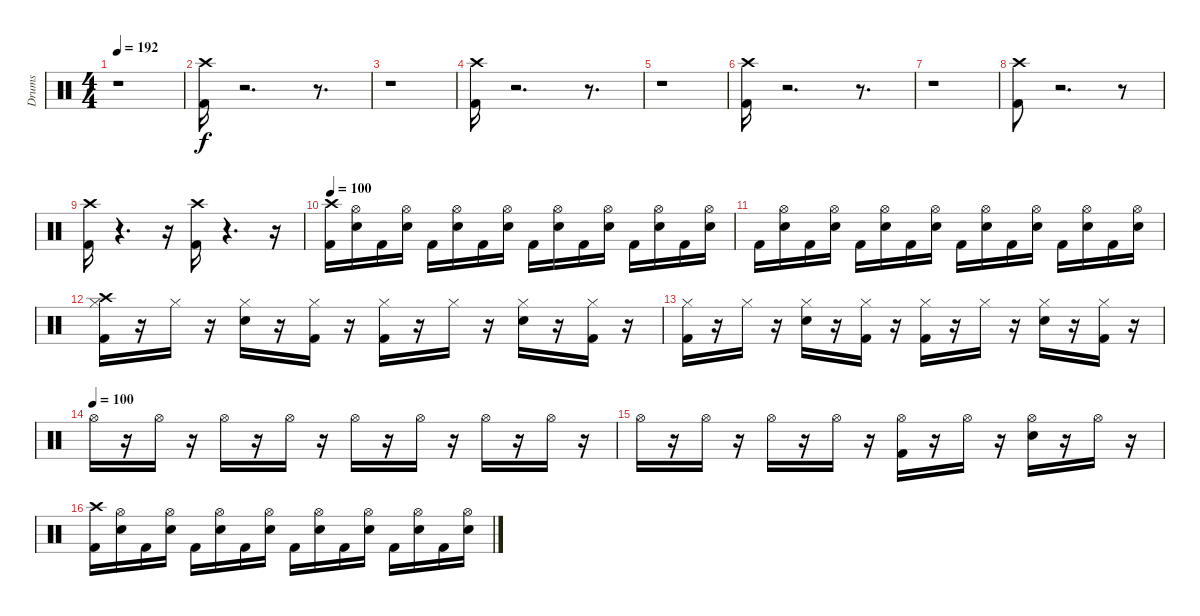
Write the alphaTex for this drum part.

\track ("Drums               " "Drums     ") {instrument percussion}
\staff {score}
\articulation defaults
\ts (4 4)
\tempo 192
\clef neutral
\ks c
r.1{dy f} |
("Kick (hit) 2" "Crash high (hit)").16 r.2{d} r.8{d} |
r.1 |
("Kick (hit) 2" "Crash high (hit)").16 r.2{d} r.8{d} |
r.1 |
("Kick (hit) 2" "Crash high (hit)").16 r.2{d} r.8{d} |
r.1 |
("Kick (hit) 2" "Crash high (hit)").8 r.2{d} r.8 |
("Kick (hit) 2" "Crash high (hit)").16 r.4{d} r.16 ("Kick (hit) 2" "Crash high (hit)").16 r.4{d} r.16 |
\tempo 100
("Kick (hit) 2" "Crash high (hit)").16 ("Snare (hit) 2" "Hi-Hat (open)").16 "Kick (hit) 2".16 ("Snare (hit) 2" "Hi-Hat (open)").16 "Kick (hit) 2".16 ("Snare (hit) 2" "Hi-Hat (open)").16 "Kick (hit) 2".16 ("Snare (hit) 2" "Hi-Hat (open)").16 "Kick (hit) 2".16 ("Snare (hit) 2" "Hi-Hat (open)").16 "Kick (hit) 2".16 ("Snare (hit) 2" "Hi-Hat (open)").16 "Kick (hit) 2".16 ("Snare (hit) 2" "Hi-Hat (open)").16 "Kick (hit) 2".16 ("Snare (hit) 2" "Hi-Hat (open)").16 |
"Kick (hit) 2".16 ("Snare (hit) 2" "Hi-Hat (open)").16 "Kick (hit) 2".16 ("Snare (hit) 2" "Hi-Hat (open)").16 "Kick (hit) 2".16 ("Snare (hit) 2" "Hi-Hat (open)").16 "Kick (hit) 2".16 ("Snare (hit) 2" "Hi-Hat (open)").16 "Kick (hit) 2".16 ("Snare (hit) 2" "Hi-Hat (open)").16 "Kick (hit) 2".16 ("Snare (hit) 2" "Hi-Hat (open)").16 "Kick (hit) 2".16 ("Snare (hit) 2" "Hi-Hat (open)").16 "Kick (hit) 2".16 ("Snare (hit) 2" "Hi-Hat (open)").16 |
("Kick (hit) 2" "Hi-Hat (closed)" "Crash high (hit)").16 r.16 "Hi-Hat (closed)".16 r.16 ("Snare (hit) 2" "Hi-Hat (closed)").16 r.16 ("Kick (hit) 2" "Hi-Hat (closed)").16 r.16 ("Kick (hit) 2" "Hi-Hat (closed)").16 r.16 "Hi-Hat (closed)".16 r.16 ("Snare (hit) 2" "Hi-Hat (closed)").16 r.16 ("Kick (hit) 2" "Hi-Hat (closed)").16 r.16 |
("Kick (hit) 2" "Hi-Hat (closed)").16 r.16 "Hi-Hat (closed)".16 r.16 ("Snare (hit) 2" "Hi-Hat (closed)").16 r.16 ("Kick (hit) 2" "Hi-Hat (closed)").16 r.16 ("Kick (hit) 2" "Hi-Hat (closed)").16 r.16 "Hi-Hat (closed)".16 r.16 ("Snare (hit) 2" "Hi-Hat (closed)").16 r.16 ("Kick (hit) 2" "Hi-Hat (closed)").16 r.16 |
\tempo (100)
"Hi-Hat (open)".16 r.16 "Hi-Hat (open)".16 r.16 "Hi-Hat (open)".16 r.16 "Hi-Hat (open)".16 r.16 "Hi-Hat (open)".16 r.16 "Hi-Hat (open)".16 r.16 "Hi-Hat (open)".16 r.16 "Hi-Hat (open)".16 r.16 |
"Hi-Hat (open)".16 r.16 "Hi-Hat (open)".16 r.16 "Hi-Hat (open)".16 r.16 "Hi-Hat (open)".16 r.16 ("Kick (hit) 2" "Hi-Hat (open)").16 r.16 "Hi-Hat (open)".16 r.16 ("Snare (hit) 2" "Hi-Hat (open)").16 r.16 "Hi-Hat (open)".16 r.16 |
("Kick (hit) 2" "Crash high (hit)").16 ("Snare (hit) 2" "Hi-Hat (open)").16 "Kick (hit) 2".16 ("Snare (hit) 2" "Hi-Hat (open)").16 "Kick (hit) 2".16 ("Snare (hit) 2" "Hi-Hat (open)").16 "Kick (hit) 2".16 ("Snare (hit) 2" "Hi-Hat (open)").16 "Kick (hit) 2".16 ("Snare (hit) 2" "Hi-Hat (open)").16 "Kick (hit) 2".16 ("Snare (hit) 2" "Hi-Hat (open)").16 "Kick (hit) 2".16 ("Snare (hit) 2" "Hi-Hat (open)").16 "Kick (hit) 2".16 ("Snare (hit) 2" "Hi-Hat (open)").16
